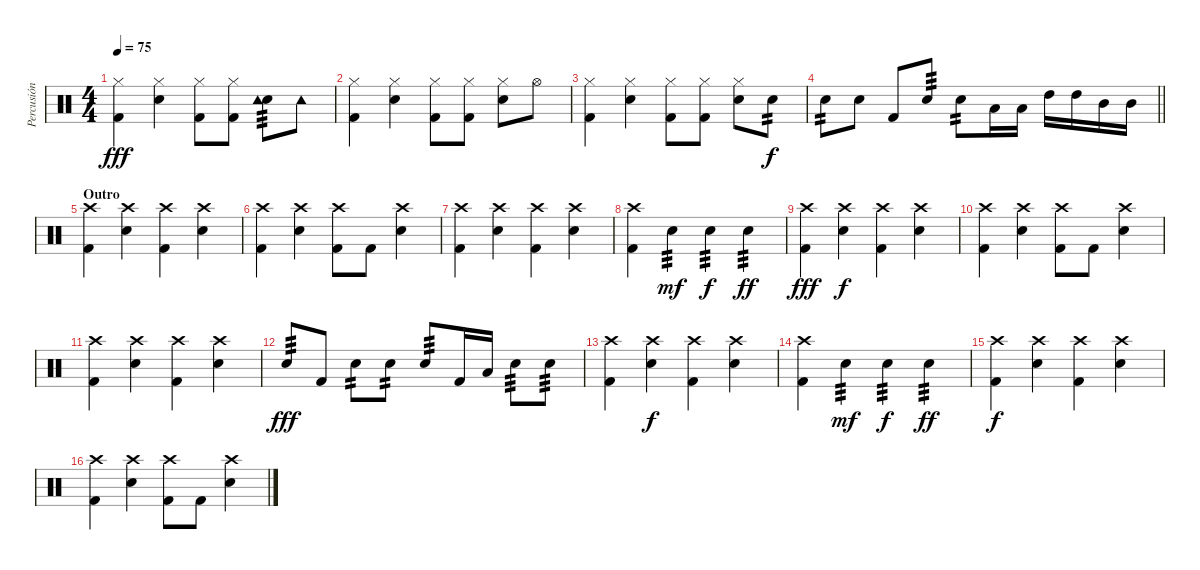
\track ("Percusión" "Percusión") {solo instrument percussion}
\staff {score}
\articulation defaults
\ts (4 4)
\tempo 75
\clef neutral
\ks c
("Kick (hit) 2" "Hi-Hat (closed)").4{dy fff} ("Electric Snare (hit)" "Hi-Hat (closed)").4 ("Kick (hit) 2" "Hi-Hat (closed)").8 ("Kick (hit) 2" "Hi-Hat (closed)").8 ("Electric Snare (hit)" "Tambourine (hit)").8{tp 3} "Tambourine (hit)".8 |
("Kick (hit) 2" "Hi-Hat (closed)").4 ("Electric Snare (hit)" "Hi-Hat (closed)").4 ("Kick (hit) 2" "Hi-Hat (closed)").8 ("Kick (hit) 2" "Hi-Hat (closed)").8 ("Electric Snare (hit)" "Hi-Hat (closed)").8 "Hi-Hat (open)".8 |
("Kick (hit) 2" "Hi-Hat (closed)").4 ("Electric Snare (hit)" "Hi-Hat (closed)").4 ("Kick (hit) 2" "Hi-Hat (closed)").8 ("Kick (hit) 2" "Hi-Hat (closed)").8 ("Electric Snare (hit)" "Hi-Hat (closed)").8 "Electric Snare (hit)".8{tp 2 dy f} |
\barLineRight lightlight "Electric Snare (hit)".8{tp 2} "Electric Snare (hit)".8 "Kick (hit) 2".8 "Electric Snare (hit)".8{tp 3} "Electric Snare (hit)".8{tp 2} "Low Tom (hit)".16 "Low Tom (hit)".16 "High Tom (hit)".16 "High Tom (hit)".16 "Mid Tom (hit)".16 "Mid Tom (hit)".16
|
\section ("" "Outro")
("Kick (hit) 2" "Crash high (hit)").4 ("Electric Snare (hit)" "Crash high (hit)").4 ("Kick (hit) 2" "Crash high (hit)").4 ("Electric Snare (hit)" "Crash high (hit)").4 |
("Kick (hit) 2" "Crash high (hit)").4 ("Electric Snare (hit)" "Crash high (hit)").4 ("Kick (hit) 2" "Crash high (hit)").8 "Kick (hit) 2".8 ("Electric Snare (hit)" "Crash high (hit)").4 |
("Kick (hit) 2" "Crash high (hit)").4 ("Electric Snare (hit)" "Crash high (hit)").4 ("Kick (hit) 2" "Crash high (hit)").4 ("Electric Snare (hit)" "Crash high (hit)").4 |
("Kick (hit) 2" "Crash high (hit)").4 "Electric Snare (hit)".4{tp 3 dy mf} "Electric Snare (hit)".4{tp 3 dy f} "Electric Snare (hit)".4{tp 3 dy ff} |
("Kick (hit) 2" "Crash high (hit)").4{dy fff} ("Electric Snare (hit)" "Crash high (hit)").4{dy f} ("Kick (hit) 2" "Crash high (hit)").4 ("Electric Snare (hit)" "Crash high (hit)").4 |
("Kick (hit) 2" "Crash high (hit)").4 ("Electric Snare (hit)" "Crash high (hit)").4 ("Kick (hit) 2" "Crash high (hit)").8 "Kick (hit) 2".8 ("Electric Snare (hit)" "Crash high (hit)").4 |
("Kick (hit) 2" "Crash high (hit)").4 ("Electric Snare (hit)" "Crash high (hit)").4 ("Kick (hit) 2" "Crash high (hit)").4 ("Electric Snare (hit)" "Crash high (hit)").4 |
"Electric Snare (hit)".8{tp 3 dy fff} "Kick (hit) 2".8 "Electric Snare (hit)".8{tp 2} "Electric Snare (hit)".8{tp 2} "Electric Snare (hit)".8{tp 3} "Kick (hit) 2".16 "Low Tom (hit)".16 "Electric Snare (hit)".8{tp 3} "Electric Snare (hit)".8{tp 3} |
("Kick (hit) 2" "Crash high (hit)").4 ("Electric Snare (hit)" "Crash high (hit)").4{dy f} ("Kick (hit) 2" "Crash high (hit)").4 ("Electric Snare (hit)" "Crash high (hit)").4 |
("Kick (hit) 2" "Crash high (hit)").4 "Electric Snare (hit)".4{tp 3 dy mf} "Electric Snare (hit)".4{tp 3 dy f} "Electric Snare (hit)".4{tp 3 dy ff} |
("Kick (hit) 2" "Crash high (hit)").4{dy f} ("Electric Snare (hit)" "Crash high (hit)").4 ("Kick (hit) 2" "Crash high (hit)").4 ("Electric Snare (hit)" "Crash high (hit)").4 |
("Kick (hit) 2" "Crash high (hit)").4 ("Electric Snare (hit)" "Crash high (hit)").4 ("Kick (hit) 2" "Crash high (hit)").8 "Kick (hit) 2".8 ("Electric Snare (hit)" "Crash high (hit)").4
